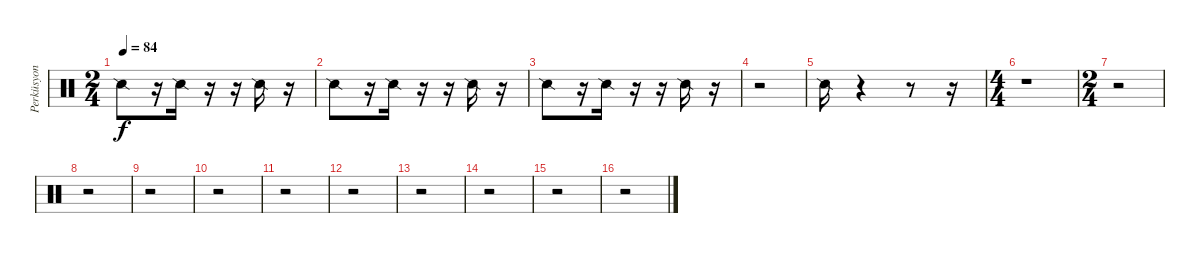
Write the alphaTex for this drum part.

\track ("Perküsyon" "Perküsyon") {instrument percussion}
\staff {score}
\articulation defaults
\ts (2 4)
\tempo 84
\clef neutral
\ks c "Snare (side stick) 2".8{dy f}
r.16 "Snare (side stick) 2".16 r.16 r.16 "Snare (side stick) 2".16 r.16 |
"Snare (side stick) 2".8 r.16 "Snare (side stick) 2".16 r.16 r.16 "Snare (side stick) 2".16 r.16 |
"Snare (side stick) 2".8 r.16 "Snare (side stick) 2".16 r.16 r.16 "Snare (side stick) 2".16 r.16 |
r.2 |
"Snare (side stick) 2".16 r.4 r.8 r.16 |
\ts (4 4)
r.1 |
\ts (2 4)
r.2 |
r.2 |
r.2 |
r.2 |
r.2 |
r.2 |
r.2 |
r.2 |
r.2 |
r.2
